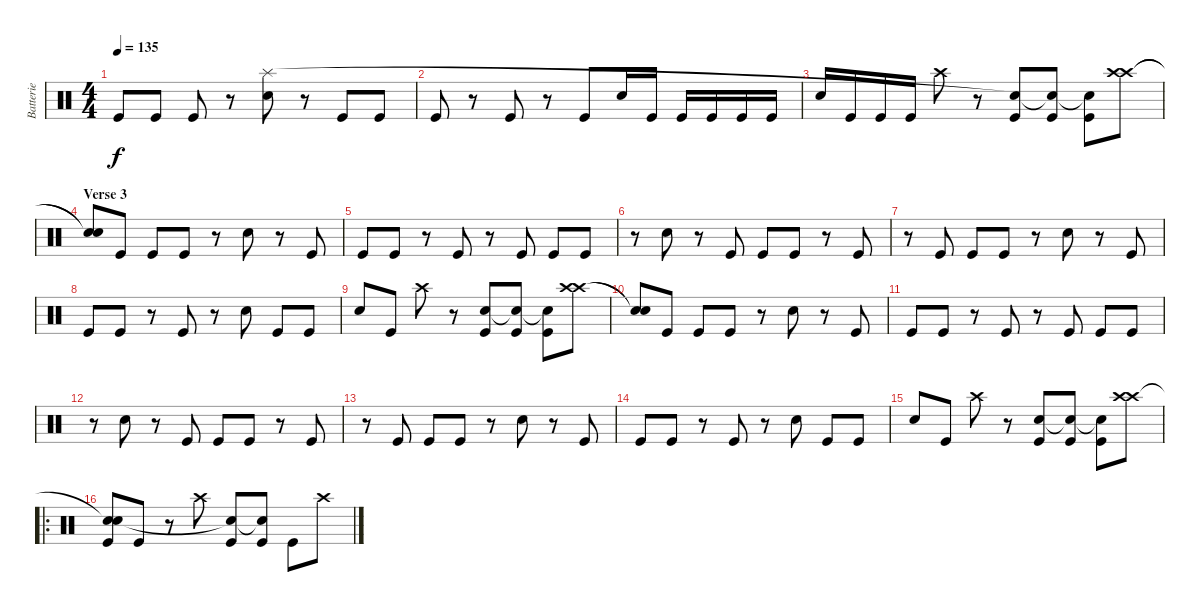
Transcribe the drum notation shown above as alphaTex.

\track ("Batterie" "Batterie") {instrument percussion}
\staff {score}
\articulation defaults
\ts (4 4)
\tempo 135
\clef neutral
\ks c "Kick (hit)".8{dy f} "Kick (hit)".8 "Kick (hit)".8
r.8 ("Electric Snare (hit)" "Splash (hit)").8 r.8 "Kick (hit)".8 "Kick (hit)".8 |
"Kick (hit)".8 r.8 "Kick (hit)".8 r.8 "Kick (hit)".8 "Electric Snare (hit)".16 "Kick (hit)".16 "Kick (hit)".16 "Kick (hit)".16 "Kick (hit)".16 "Kick (hit)".16 |
"Electric Snare (hit)".16 "Kick (hit)".16 "Kick (hit)".16 "Kick (hit)".16 "Crash high (hit)".8 r.8 ("Kick (hit)" "Snare (hit)"{t}).8 ("Kick (hit)" "Snare (hit)"{t}).8 ("Kick (hit)" "Snare (hit)"{t}).8 ("Crash high (hit)" "Crash high (hit)").8 |
\section ("" "Verse 3 ")
("Snare (hit)"{t} "Snare (hit)"{t}).8 "Kick (hit)".8 "Kick (hit)".8 "Kick (hit)".8 r.8 "Electric Snare (hit)".8 r.8 "Kick (hit)".8 |
"Kick (hit)".8 "Kick (hit)".8 r.8 "Kick (hit)".8 r.8 "Kick (hit)".8 "Kick (hit)".8 "Kick (hit)".8 |
r.8 "Electric Snare (hit)".8 r.8 "Kick (hit)".8 "Kick (hit)".8 "Kick (hit)".8 r.8 "Kick (hit)".8 |
r.8 "Kick (hit)".8 "Kick (hit)".8 "Kick (hit)".8 r.8 "Electric Snare (hit)".8 r.8 "Kick (hit)".8 |
"Kick (hit)".8 "Kick (hit)".8 r.8 "Kick (hit)".8 r.8 "Electric Snare (hit)".8 "Kick (hit)".8 "Kick (hit)".8 |
"Electric Snare (hit)".8 "Kick (hit)".8 "Crash high (hit)".8 r.8 ("Kick (hit)" "Snare (hit)").8 ("Kick (hit)" "Snare (hit)"{t}).8 ("Kick (hit)" "Snare (hit)"{t}).8 ("Crash high (hit)" "Crash high (hit)").8 |
("Snare (hit)"{t} "Snare (hit)"{t}).8 "Kick (hit)".8 "Kick (hit)".8 "Kick (hit)".8 r.8 "Electric Snare (hit)".8 r.8 "Kick (hit)".8 |
"Kick (hit)".8 "Kick (hit)".8 r.8 "Kick (hit)".8 r.8 "Kick (hit)".8 "Kick (hit)".8 "Kick (hit)".8 |
r.8 "Electric Snare (hit)".8 r.8 "Kick (hit)".8 "Kick (hit)".8 "Kick (hit)".8 r.8 "Kick (hit)".8 |
r.8 "Kick (hit)".8 "Kick (hit)".8 "Kick (hit)".8 r.8 "Electric Snare (hit)".8 r.8 "Kick (hit)".8 |
"Kick (hit)".8 "Kick (hit)".8 r.8 "Kick (hit)".8 r.8 "Electric Snare (hit)".8 "Kick (hit)".8 "Kick (hit)".8 |
"Electric Snare (hit)".8 "Kick (hit)".8 "Crash high (hit)".8 r.8 ("Kick (hit)" "Snare (hit)").8 ("Kick (hit)" "Snare (hit)"{t}).8 ("Kick (hit)" "Snare (hit)"{t}).8 ("Crash high (hit)" "Crash high (hit)").8 |
\ro
("Kick (hit)" "Snare (hit)"{t} "Snare (hit)").8 "Kick (hit)".8 r.8 "Crash high (hit)".8 ("Kick (hit)" "Snare (hit)"{t}).8 ("Kick (hit)" "Snare (hit)"{t}).8 "Kick (hit)".8 "Crash high (hit)".8
